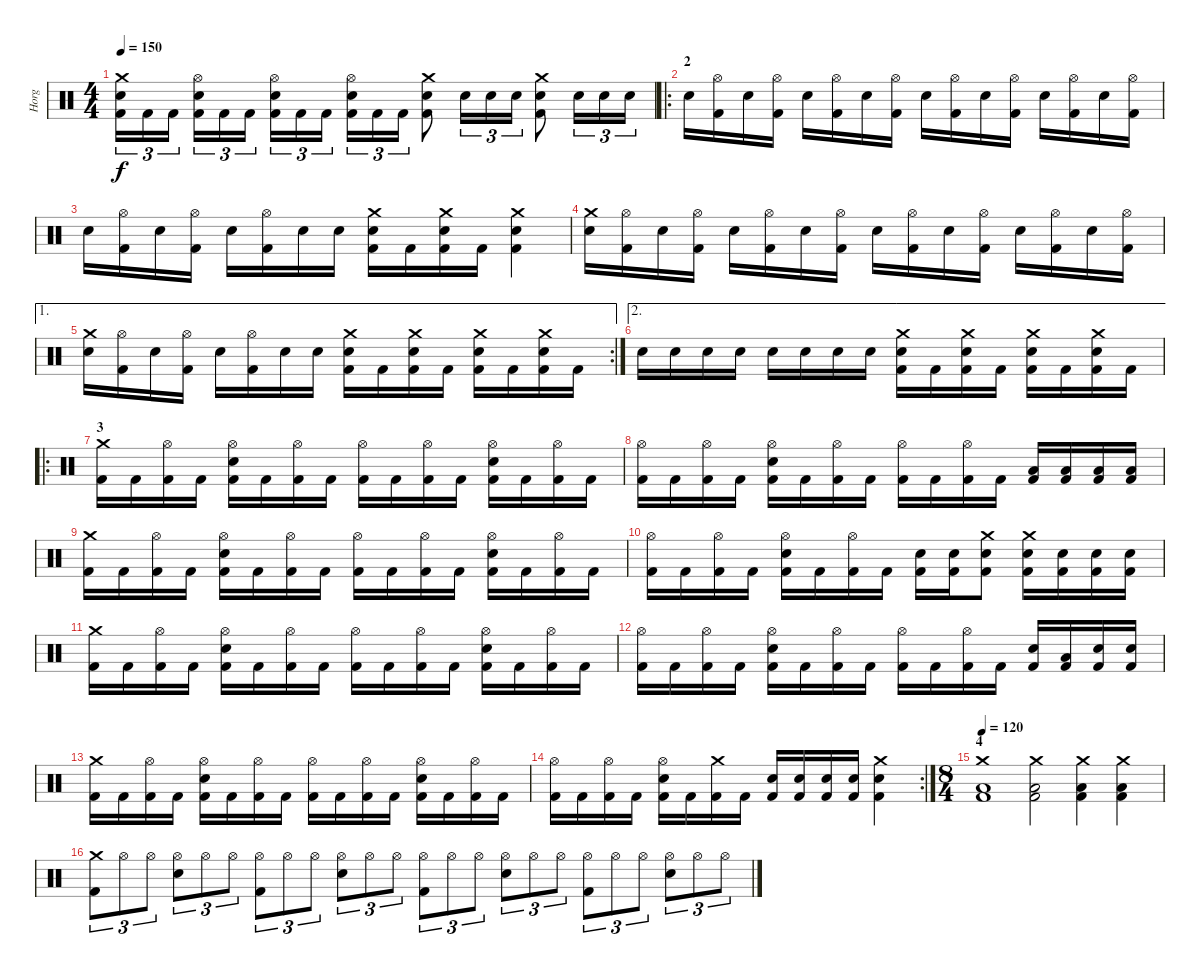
\track ("Horg" "Horg") {instrument percussion}
\staff {score}
\articulation defaults
\ts (4 4)
\tempo 150
\clef neutral
\ks c
("Crash medium (hit)" "Snare (hit) 2" "Kick (hit) 2").16{tu (3 2) dy f} "Kick (hit) 2".16{tu (3 2)} "Kick (hit) 2".16{tu (3 2)} ("Hi-Hat (open)" "Snare (hit) 2" "Kick (hit) 2").16{tu (3 2)} "Kick (hit) 2".16{tu (3 2)} "Kick (hit) 2".16{tu (3 2)} ("Hi-Hat (open)" "Snare (hit) 2" "Kick (hit) 2").16{tu (3 2)} "Kick (hit) 2".16{tu (3 2)} "Kick (hit) 2".16{tu (3 2)} ("Hi-Hat (open)" "Snare (hit) 2" "Kick (hit) 2").16{tu (3 2)} "Kick (hit) 2".16{tu (3 2)} "Kick (hit) 2".16{tu (3 2)} ("Crash medium (hit)" "Snare (hit) 2" "Kick (hit) 2").8 "Snare (hit) 2".16{tu (3 2)} "Snare (hit) 2".16{tu (3 2)} "Snare (hit) 2".16{tu (3 2)} ("Crash medium (hit)" "Snare (hit) 2" "Kick (hit) 2").8 "Snare (hit) 2".16{tu (3 2)} "Snare (hit) 2".16{tu (3 2)} "Snare (hit) 2".16{tu (3 2)} |
\ro
\section ("" "2")
"Snare (hit) 2".16 ("Hi-Hat (open)" "Kick (hit) 2").16 "Snare (hit) 2".16 ("Hi-Hat (open)" "Kick (hit) 2").16 "Snare (hit) 2".16 ("Hi-Hat (open)" "Kick (hit) 2").16 "Snare (hit) 2".16 ("Hi-Hat (open)" "Kick (hit) 2").16 "Snare (hit) 2".16 ("Hi-Hat (open)" "Kick (hit) 2").16 "Snare (hit) 2".16 ("Hi-Hat (open)" "Kick (hit) 2").16 "Snare (hit) 2".16 ("Hi-Hat (open)" "Kick (hit) 2").16 "Snare (hit) 2".16 ("Hi-Hat (open)" "Kick (hit) 2").16 |
"Snare (hit) 2".16 ("Hi-Hat (open)" "Kick (hit) 2").16 "Snare (hit) 2".16 ("Hi-Hat (open)" "Kick (hit) 2").16 "Snare (hit) 2".16 ("Hi-Hat (open)" "Kick (hit) 2").16 "Snare (hit) 2".16 "Snare (hit) 2".16 ("Crash medium (hit)" "Snare (hit) 2" "Kick (hit) 2").16 "Kick (hit) 2".16 ("Crash medium (hit)" "Snare (hit) 2" "Kick (hit) 2").16 "Kick (hit) 2".16 ("Crash medium (hit)" "Snare (hit) 2" "Kick (hit) 2").4 |
("Crash medium (hit)" "Snare (hit) 2").16 ("Hi-Hat (open)" "Kick (hit) 2").16 "Snare (hit) 2".16 ("Hi-Hat (open)" "Kick (hit) 2").16 "Snare (hit) 2".16 ("Hi-Hat (open)" "Kick (hit) 2").16 "Snare (hit) 2".16 ("Hi-Hat (open)" "Kick (hit) 2").16 "Snare (hit) 2".16 ("Hi-Hat (open)" "Kick (hit) 2").16 "Snare (hit) 2".16 ("Hi-Hat (open)" "Kick (hit) 2").16 "Snare (hit) 2".16 ("Hi-Hat (open)" "Kick (hit) 2").16 "Snare (hit) 2".16 ("Hi-Hat (open)" "Kick (hit) 2").16 |
\ae 1
\rc 2
("Crash medium (hit)" "Snare (hit) 2").16 ("Hi-Hat (open)" "Kick (hit) 2").16 "Snare (hit) 2".16 ("Hi-Hat (open)" "Kick (hit) 2").16 "Snare (hit) 2".16 ("Hi-Hat (open)" "Kick (hit) 2").16 "Snare (hit) 2".16 "Snare (hit) 2".16 ("Crash medium (hit)" "Snare (hit) 2" "Kick (hit) 2").16 "Kick (hit) 2".16 ("Crash medium (hit)" "Snare (hit) 2" "Kick (hit) 2").16 "Kick (hit) 2".16 ("Crash medium (hit)" "Snare (hit) 2" "Kick (hit) 2").16 "Kick (hit) 2".16 ("Crash medium (hit)" "Snare (hit) 2" "Kick (hit) 2").16 "Kick (hit) 2".16 |
\ae 2 "Snare (hit) 2".16 "Snare (hit) 2".16 "Snare (hit) 2".16 "Snare (hit) 2".16 "Snare (hit) 2".16 "Snare (hit) 2".16 "Snare (hit) 2".16 "Snare (hit) 2".16
("Crash medium (hit)" "Snare (hit) 2" "Kick (hit) 2").16 "Kick (hit) 2".16 ("Crash medium (hit)" "Snare (hit) 2" "Kick (hit) 2").16 "Kick (hit) 2".16 ("Crash medium (hit)" "Snare (hit) 2" "Kick (hit) 2").16 "Kick (hit) 2".16 ("Crash medium (hit)" "Snare (hit) 2" "Kick (hit) 2").16 "Kick (hit) 2".16 |
\ro
\section ("" "3")
("Crash medium (hit)" "Kick (hit) 2").16 "Kick (hit) 2".16 ("Hi-Hat (open)" "Kick (hit) 2").16 "Kick (hit) 2".16 ("Hi-Hat (open)" "Snare (hit) 2" "Kick (hit) 2").16 "Kick (hit) 2".16 ("Hi-Hat (open)" "Kick (hit) 2").16 "Kick (hit) 2".16 ("Hi-Hat (open)" "Kick (hit) 2").16 "Kick (hit) 2".16 ("Hi-Hat (open)" "Kick (hit) 2").16 "Kick (hit) 2".16 ("Hi-Hat (open)" "Snare (hit) 2" "Kick (hit) 2").16 "Kick (hit) 2".16 ("Hi-Hat (open)" "Kick (hit) 2").16 "Kick (hit) 2".16 |
("Hi-Hat (open)" "Kick (hit) 2").16 "Kick (hit) 2".16 ("Hi-Hat (open)" "Kick (hit) 2").16 "Kick (hit) 2".16 ("Hi-Hat (open)" "Snare (hit) 2" "Kick (hit) 2").16 "Kick (hit) 2".16 ("Hi-Hat (open)" "Kick (hit) 2").16 "Kick (hit) 2".16 ("Hi-Hat (open)" "Kick (hit) 2").16 "Kick (hit) 2".16 ("Hi-Hat (open)" "Kick (hit) 2").16 "Kick (hit) 2".16 ("Low Floor Tom (hit)" "Kick (hit) 2").16 ("Low Floor Tom (hit)" "Kick (hit) 2").16 ("Low Floor Tom (hit)" "Kick (hit) 2").16 ("Low Floor Tom (hit)" "Kick (hit) 2").16 |
("Crash medium (hit)" "Kick (hit) 2").16 "Kick (hit) 2".16 ("Hi-Hat (open)" "Kick (hit) 2").16 "Kick (hit) 2".16 ("Hi-Hat (open)" "Snare (hit) 2" "Kick (hit) 2").16 "Kick (hit) 2".16 ("Hi-Hat (open)" "Kick (hit) 2").16 "Kick (hit) 2".16 ("Hi-Hat (open)" "Kick (hit) 2").16 "Kick (hit) 2".16 ("Hi-Hat (open)" "Kick (hit) 2").16 "Kick (hit) 2".16 ("Hi-Hat (open)" "Snare (hit) 2" "Kick (hit) 2").16 "Kick (hit) 2".16 ("Hi-Hat (open)" "Kick (hit) 2").16 "Kick (hit) 2".16 |
("Hi-Hat (open)" "Kick (hit) 2").16 "Kick (hit) 2".16 ("Hi-Hat (open)" "Kick (hit) 2").16 "Kick (hit) 2".16 ("Hi-Hat (open)" "Snare (hit) 2" "Kick (hit) 2").16 "Kick (hit) 2".16 ("Hi-Hat (open)" "Kick (hit) 2").16 "Kick (hit) 2".16 ("Snare (hit) 2" "Kick (hit) 2").16 ("Snare (hit) 2" "Kick (hit) 2").16 ("Crash medium (hit)" "Snare (hit) 2" "Kick (hit) 2").8 ("Crash medium (hit)" "Snare (hit) 2" "Kick (hit) 2").16 ("Snare (hit) 2" "Kick (hit) 2").16 ("Snare (hit) 2" "Kick (hit) 2").16 ("Snare (hit) 2" "Kick (hit) 2").16 |
("Crash medium (hit)" "Kick (hit) 2").16 "Kick (hit) 2".16 ("Hi-Hat (open)" "Kick (hit) 2").16 "Kick (hit) 2".16 ("Hi-Hat (open)" "Snare (hit) 2" "Kick (hit) 2").16 "Kick (hit) 2".16 ("Hi-Hat (open)" "Kick (hit) 2").16 "Kick (hit) 2".16 ("Hi-Hat (open)" "Kick (hit) 2").16 "Kick (hit) 2".16 ("Hi-Hat (open)" "Kick (hit) 2").16 "Kick (hit) 2".16 ("Hi-Hat (open)" "Snare (hit) 2" "Kick (hit) 2").16 "Kick (hit) 2".16 ("Hi-Hat (open)" "Kick (hit) 2").16 "Kick (hit) 2".16 |
("Hi-Hat (open)" "Kick (hit) 2").16 "Kick (hit) 2".16 ("Hi-Hat (open)" "Kick (hit) 2").16 "Kick (hit) 2".16 ("Hi-Hat (open)" "Snare (hit) 2" "Kick (hit) 2").16 "Kick (hit) 2".16 ("Hi-Hat (open)" "Kick (hit) 2").16 "Kick (hit) 2".16 ("Hi-Hat (open)" "Kick (hit) 2").16 "Kick (hit) 2".16 ("Hi-Hat (open)" "Kick (hit) 2").16 "Kick (hit) 2".16 ("Snare (hit) 2" "Kick (hit) 2").16 ("Low Floor Tom (hit)" "Kick (hit) 2").16 ("Snare (hit) 2" "Kick (hit) 2").16 ("Snare (hit) 2" "Kick (hit) 2").16 |
("Crash medium (hit)" "Kick (hit) 2").16 "Kick (hit) 2".16 ("Hi-Hat (open)" "Kick (hit) 2").16 "Kick (hit) 2".16 ("Hi-Hat (open)" "Snare (hit) 2" "Kick (hit) 2").16 "Kick (hit) 2".16 ("Hi-Hat (open)" "Kick (hit) 2").16 "Kick (hit) 2".16 ("Hi-Hat (open)" "Kick (hit) 2").16 "Kick (hit) 2".16 ("Hi-Hat (open)" "Kick (hit) 2").16 "Kick (hit) 2".16 ("Hi-Hat (open)" "Snare (hit) 2" "Kick (hit) 2").16 "Kick (hit) 2".16 ("Hi-Hat (open)" "Kick (hit) 2").16 "Kick (hit) 2".16 |
\rc 2
("Hi-Hat (open)" "Kick (hit) 2").16 "Kick (hit) 2".16 ("Hi-Hat (open)" "Kick (hit) 2").16 "Kick (hit) 2".16 ("Hi-Hat (open)" "Snare (hit) 2" "Kick (hit) 2").16 "Kick (hit) 2".16 ("Crash medium (hit)" "Kick (hit) 2").16 "Kick (hit) 2".16 ("Snare (hit) 2" "Kick (hit) 2").16 ("Snare (hit) 2" "Kick (hit) 2").16 ("Snare (hit) 2" "Kick (hit) 2").16 ("Snare (hit) 2" "Kick (hit) 2").16 ("Crash medium (hit)" "Snare (hit) 2" "Kick (hit) 2").4 |
\ts (8 4)
\section ("" "4")
\tempo 120
("Crash medium (hit)" "Low Floor Tom (hit)" "Kick (hit) 2").1 ("Crash medium (hit)" "Low Floor Tom (hit)" "Kick (hit) 2").2 ("Crash medium (hit)" "Low Floor Tom (hit)" "Kick (hit) 2").4 ("Crash medium (hit)" "Low Floor Tom (hit)" "Kick (hit) 2").4 |
("Crash medium (hit)" "Kick (hit) 2").8{tu (3 2)} "Hi-Hat (open)".8{tu (3 2)} "Hi-Hat (open)".8{tu (3 2)} ("Hi-Hat (open)" "Snare (hit) 2").8{tu (3 2)} "Hi-Hat (open)".8{tu (3 2)} "Hi-Hat (open)".8{tu (3 2)} ("Hi-Hat (open)" "Kick (hit) 2").8{tu (3 2)} "Hi-Hat (open)".8{tu (3 2)} "Hi-Hat (open)".8{tu (3 2)} ("Hi-Hat (open)" "Snare (hit) 2").8{tu (3 2)} "Hi-Hat (open)".8{tu (3 2)} "Hi-Hat (open)".8{tu (3 2)} ("Hi-Hat (open)" "Kick (hit) 2").8{tu (3 2)} "Hi-Hat (open)".8{tu (3 2)} "Hi-Hat (open)".8{tu (3 2)} ("Hi-Hat (open)" "Snare (hit) 2").8{tu (3 2)} "Hi-Hat (open)".8{tu (3 2)} "Hi-Hat (open)".8{tu (3 2)} ("Hi-Hat (open)" "Kick (hit) 2").8{tu (3 2)} "Hi-Hat (open)".8{tu (3 2)} "Hi-Hat (open)".8{tu (3 2)} ("Hi-Hat (open)" "Snare (hit) 2").8{tu (3 2)} "Hi-Hat (open)".8{tu (3 2)} "Hi-Hat (open)".8{tu (3 2)}
